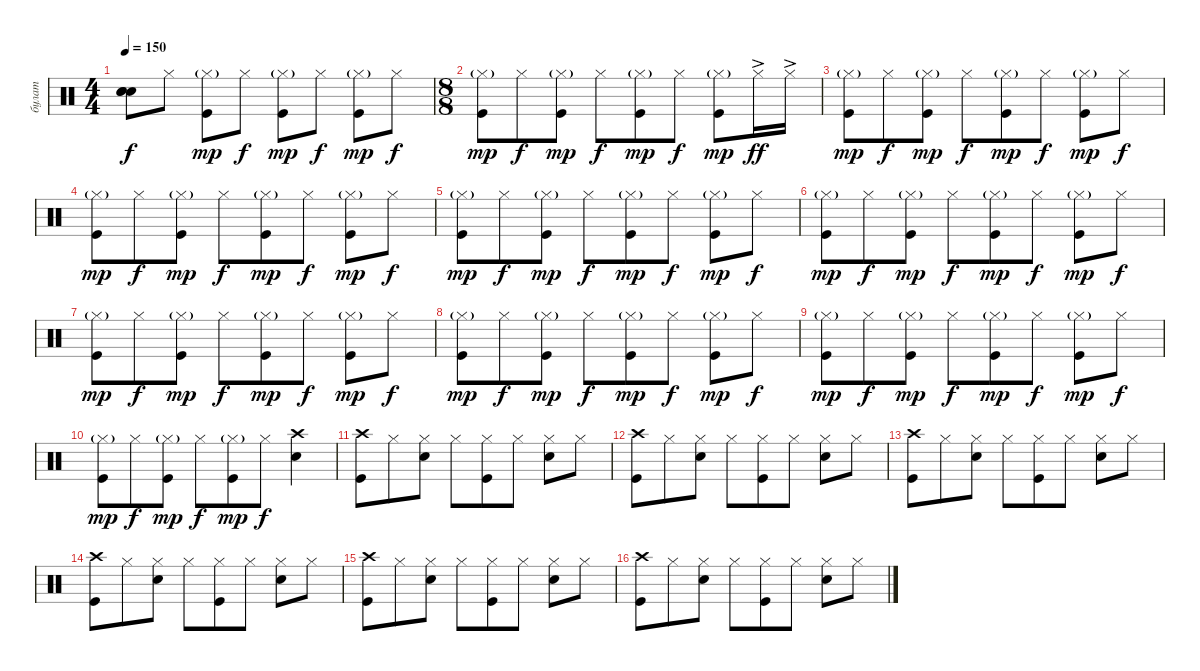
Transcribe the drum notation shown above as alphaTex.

\track ("булат" "булат") {instrument percussion}
\staff {score}
\articulation defaults
\ts (4 4)
\tempo 150
\clef neutral
\ks c
("Snare (hit)"{t} "Snare (hit)"{t} "Snare (hit)"{t}).8{dy f} "Hi-Hat (closed)".8 ("Hi-Hat (closed)"{g} "Kick (hit)").8{dy mp} "Hi-Hat (closed)".8{dy f} ("Hi-Hat (closed)"{g} "Kick (hit)").8{dy mp} "Hi-Hat (closed)".8{dy f} ("Hi-Hat (closed)"{g} "Kick (hit)").8{dy mp} "Hi-Hat (closed)".8{dy f} |
\ts (8 8)
("Hi-Hat (closed)"{g} "Kick (hit)").8{dy mp} "Hi-Hat (closed)".8{dy f} ("Hi-Hat (closed)"{g} "Kick (hit)").8{dy mp} "Hi-Hat (closed)".8{dy f} ("Hi-Hat (closed)"{g} "Kick (hit)").8{dy mp} "Hi-Hat (closed)".8{dy f} ("Hi-Hat (closed)"{g} "Kick (hit)").8{dy mp} "Hi-Hat (closed)"{ac}.16{dy ff} "Hi-Hat (closed)"{ac}.16 |
("Hi-Hat (closed)"{g} "Kick (hit)").8{dy mp} "Hi-Hat (closed)".8{dy f} ("Hi-Hat (closed)"{g} "Kick (hit)").8{dy mp} "Hi-Hat (closed)".8{dy f} ("Hi-Hat (closed)"{g} "Kick (hit)").8{dy mp} "Hi-Hat (closed)".8{dy f} ("Hi-Hat (closed)"{g} "Kick (hit)").8{dy mp} "Hi-Hat (closed)".8{dy f} |
("Hi-Hat (closed)"{g} "Kick (hit)").8{dy mp} "Hi-Hat (closed)".8{dy f} ("Hi-Hat (closed)"{g} "Kick (hit)").8{dy mp} "Hi-Hat (closed)".8{dy f} ("Hi-Hat (closed)"{g} "Kick (hit)").8{dy mp} "Hi-Hat (closed)".8{dy f} ("Hi-Hat (closed)"{g} "Kick (hit)").8{dy mp} "Hi-Hat (closed)".8{dy f} |
("Hi-Hat (closed)"{g} "Kick (hit)").8{dy mp} "Hi-Hat (closed)".8{dy f} ("Hi-Hat (closed)"{g} "Kick (hit)").8{dy mp} "Hi-Hat (closed)".8{dy f} ("Hi-Hat (closed)"{g} "Kick (hit)").8{dy mp} "Hi-Hat (closed)".8{dy f} ("Hi-Hat (closed)"{g} "Kick (hit)").8{dy mp} "Hi-Hat (closed)".8{dy f} |
("Hi-Hat (closed)"{g} "Kick (hit)").8{dy mp} "Hi-Hat (closed)".8{dy f} ("Hi-Hat (closed)"{g} "Kick (hit)").8{dy mp} "Hi-Hat (closed)".8{dy f} ("Hi-Hat (closed)"{g} "Kick (hit)").8{dy mp} "Hi-Hat (closed)".8{dy f} ("Hi-Hat (closed)"{g} "Kick (hit)").8{dy mp} "Hi-Hat (closed)".8{dy f} |
("Hi-Hat (closed)"{g} "Kick (hit)").8{dy mp} "Hi-Hat (closed)".8{dy f} ("Hi-Hat (closed)"{g} "Kick (hit)").8{dy mp} "Hi-Hat (closed)".8{dy f} ("Hi-Hat (closed)"{g} "Kick (hit)").8{dy mp} "Hi-Hat (closed)".8{dy f} ("Hi-Hat (closed)"{g} "Kick (hit)").8{dy mp} "Hi-Hat (closed)".8{dy f} |
("Hi-Hat (closed)"{g} "Kick (hit)").8{dy mp} "Hi-Hat (closed)".8{dy f} ("Hi-Hat (closed)"{g} "Kick (hit)").8{dy mp} "Hi-Hat (closed)".8{dy f} ("Hi-Hat (closed)"{g} "Kick (hit)").8{dy mp} "Hi-Hat (closed)".8{dy f} ("Hi-Hat (closed)"{g} "Kick (hit)").8{dy mp} "Hi-Hat (closed)".8{dy f} |
("Hi-Hat (closed)"{g} "Kick (hit)").8{dy mp} "Hi-Hat (closed)".8{dy f} ("Hi-Hat (closed)"{g} "Kick (hit)").8{dy mp} "Hi-Hat (closed)".8{dy f} ("Hi-Hat (closed)"{g} "Kick (hit)").8{dy mp} "Hi-Hat (closed)".8{dy f} ("Hi-Hat (closed)"{g} "Kick (hit)").8{dy mp} "Hi-Hat (closed)".8{dy f} |
("Hi-Hat (closed)"{g} "Kick (hit)").8{dy mp} "Hi-Hat (closed)".8{dy f} ("Hi-Hat (closed)"{g} "Kick (hit)").8{dy mp} "Hi-Hat (closed)".8{dy f} ("Hi-Hat (closed)"{g} "Kick (hit)").8{dy mp} "Hi-Hat (closed)".8{dy f} ("Snare (hit) 2" "Crash high (hit)").4 |
("Crash high (hit)" "Kick (hit)").8 "Hi-Hat (closed)".8 ("Hi-Hat (closed)" "Snare (hit) 2").8 "Hi-Hat (closed)".8 ("Hi-Hat (closed)" "Kick (hit)").8 "Hi-Hat (closed)".8 ("Hi-Hat (closed)" "Snare (hit) 2").8 "Hi-Hat (closed)".8 |
("Crash high (hit)" "Kick (hit)").8 "Hi-Hat (closed)".8 ("Hi-Hat (closed)" "Snare (hit) 2").8 "Hi-Hat (closed)".8 ("Hi-Hat (closed)" "Kick (hit)").8 "Hi-Hat (closed)".8 ("Hi-Hat (closed)" "Snare (hit) 2").8 "Hi-Hat (closed)".8 |
("Crash high (hit)" "Kick (hit)").8 "Hi-Hat (closed)".8 ("Hi-Hat (closed)" "Snare (hit) 2").8 "Hi-Hat (closed)".8 ("Hi-Hat (closed)" "Kick (hit)").8 "Hi-Hat (closed)".8 ("Hi-Hat (closed)" "Snare (hit) 2").8 "Hi-Hat (closed)".8 |
("Crash high (hit)" "Kick (hit)").8 "Hi-Hat (closed)".8 ("Hi-Hat (closed)" "Snare (hit) 2").8 "Hi-Hat (closed)".8 ("Hi-Hat (closed)" "Kick (hit)").8 "Hi-Hat (closed)".8 ("Hi-Hat (closed)" "Snare (hit) 2").8 "Hi-Hat (closed)".8 |
("Crash high (hit)" "Kick (hit)").8 "Hi-Hat (closed)".8 ("Hi-Hat (closed)" "Snare (hit) 2").8 "Hi-Hat (closed)".8 ("Hi-Hat (closed)" "Kick (hit)").8 "Hi-Hat (closed)".8 ("Hi-Hat (closed)" "Snare (hit) 2").8 "Hi-Hat (closed)".8 |
("Crash high (hit)" "Kick (hit)").8 "Hi-Hat (closed)".8 ("Hi-Hat (closed)" "Snare (hit) 2").8 "Hi-Hat (closed)".8 ("Hi-Hat (closed)" "Kick (hit)").8 "Hi-Hat (closed)".8 ("Hi-Hat (closed)" "Snare (hit) 2").8 "Hi-Hat (closed)".8
